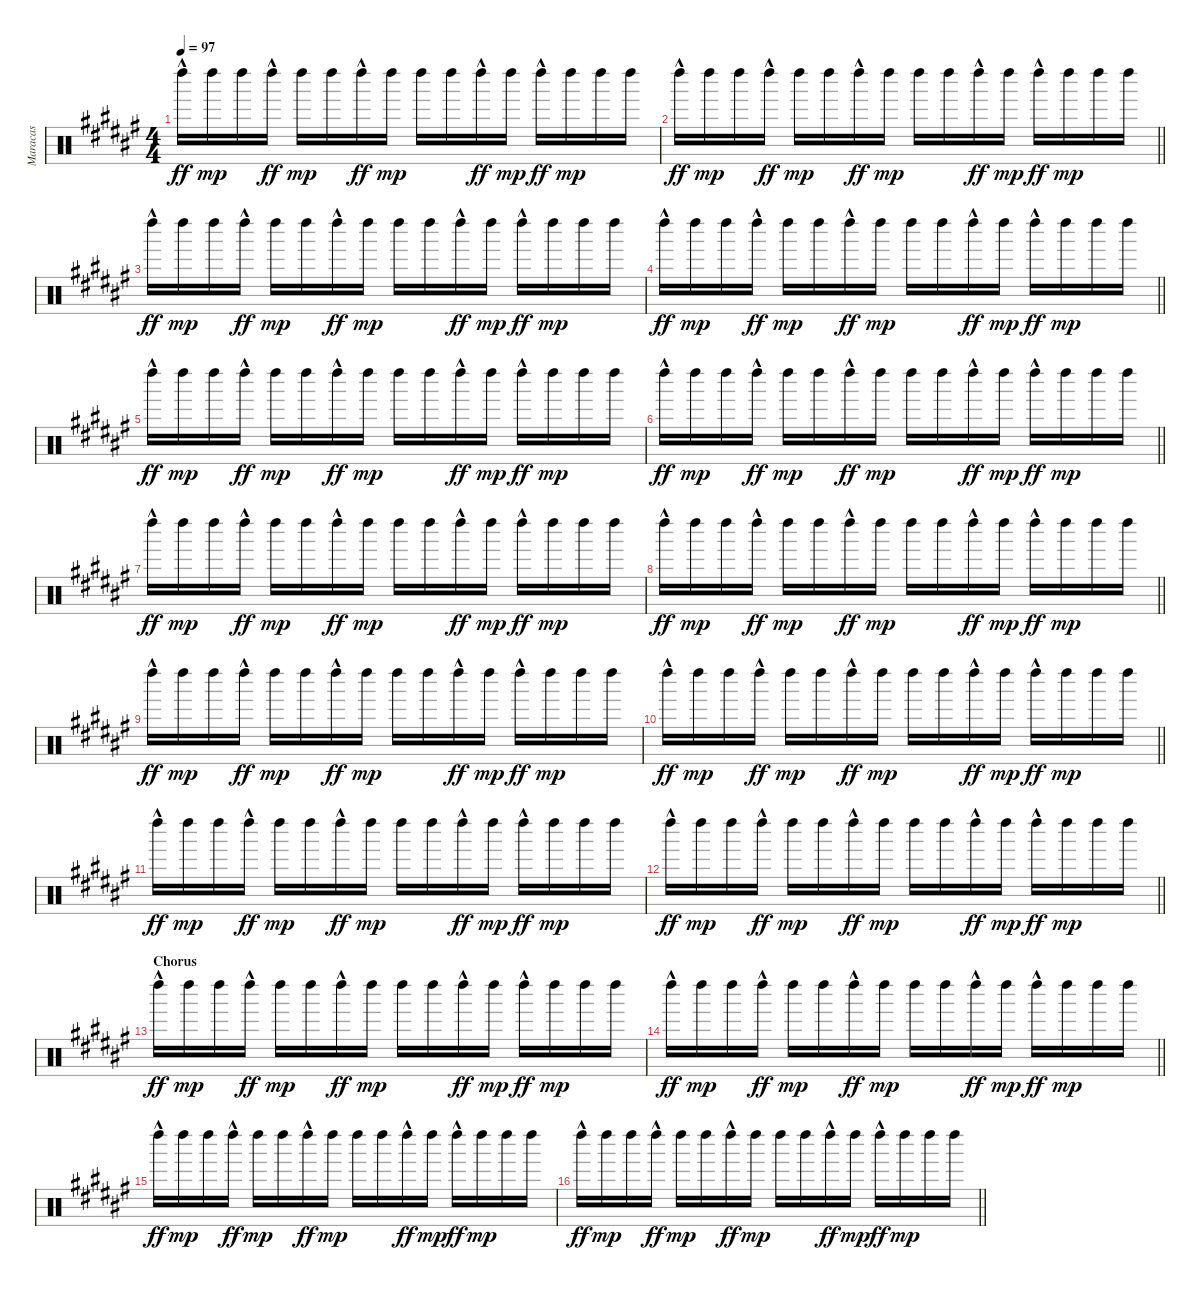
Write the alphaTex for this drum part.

\track ("Maracas" "Maracas") {instrument percussion}
\staff {score}
\articulation defaults
\ts (4 4)
\tempo 97
\clef neutral
\ks f# "Left Maraca (hit)"{hac}.16{dy ff} "Left Maraca (hit)".16{dy mp} "Left Maraca (hit)".16 "Left Maraca (hit)"{hac}.16{dy ff} "Left Maraca (hit)".16{dy mp} "Left Maraca (hit)".16 "Left Maraca (hit)"{hac}.16{dy ff} "Left Maraca (hit)".16{dy mp} "Left Maraca (hit)".16 "Left Maraca (hit)".16 "Left Maraca (hit)"{hac}.16{dy ff} "Left Maraca (hit)".16{dy mp} "Left Maraca (hit)"{hac}.16{dy ff} "Left Maraca (hit)".16{dy mp} "Left Maraca (hit)".16 "Left Maraca (hit)".16
|
\barLineRight lightlight "Left Maraca (hit)"{hac}.16{dy ff} "Left Maraca (hit)".16{dy mp} "Left Maraca (hit)".16 "Left Maraca (hit)"{hac}.16{dy ff} "Left Maraca (hit)".16{dy mp} "Left Maraca (hit)".16 "Left Maraca (hit)"{hac}.16{dy ff} "Left Maraca (hit)".16{dy mp} "Left Maraca (hit)".16 "Left Maraca (hit)".16 "Left Maraca (hit)"{hac}.16{dy ff} "Left Maraca (hit)".16{dy mp} "Left Maraca (hit)"{hac}.16{dy ff} "Left Maraca (hit)".16{dy mp} "Left Maraca (hit)".16 "Left Maraca (hit)".16
|
"Left Maraca (hit)"{hac}.16{dy ff} "Left Maraca (hit)".16{dy mp} "Left Maraca (hit)".16 "Left Maraca (hit)"{hac}.16{dy ff} "Left Maraca (hit)".16{dy mp} "Left Maraca (hit)".16 "Left Maraca (hit)"{hac}.16{dy ff} "Left Maraca (hit)".16{dy mp} "Left Maraca (hit)".16 "Left Maraca (hit)".16 "Left Maraca (hit)"{hac}.16{dy ff} "Left Maraca (hit)".16{dy mp} "Left Maraca (hit)"{hac}.16{dy ff} "Left Maraca (hit)".16{dy mp} "Left Maraca (hit)".16 "Left Maraca (hit)".16 |
\barLineRight lightlight "Left Maraca (hit)"{hac}.16{dy ff} "Left Maraca (hit)".16{dy mp} "Left Maraca (hit)".16 "Left Maraca (hit)"{hac}.16{dy ff} "Left Maraca (hit)".16{dy mp} "Left Maraca (hit)".16 "Left Maraca (hit)"{hac}.16{dy ff} "Left Maraca (hit)".16{dy mp} "Left Maraca (hit)".16 "Left Maraca (hit)".16 "Left Maraca (hit)"{hac}.16{dy ff} "Left Maraca (hit)".16{dy mp} "Left Maraca (hit)"{hac}.16{dy ff} "Left Maraca (hit)".16{dy mp} "Left Maraca (hit)".16 "Left Maraca (hit)".16
|
"Left Maraca (hit)"{hac}.16{dy ff} "Left Maraca (hit)".16{dy mp} "Left Maraca (hit)".16 "Left Maraca (hit)"{hac}.16{dy ff} "Left Maraca (hit)".16{dy mp} "Left Maraca (hit)".16 "Left Maraca (hit)"{hac}.16{dy ff} "Left Maraca (hit)".16{dy mp} "Left Maraca (hit)".16 "Left Maraca (hit)".16 "Left Maraca (hit)"{hac}.16{dy ff} "Left Maraca (hit)".16{dy mp} "Left Maraca (hit)"{hac}.16{dy ff} "Left Maraca (hit)".16{dy mp} "Left Maraca (hit)".16 "Left Maraca (hit)".16 |
\barLineRight lightlight "Left Maraca (hit)"{hac}.16{dy ff} "Left Maraca (hit)".16{dy mp} "Left Maraca (hit)".16 "Left Maraca (hit)"{hac}.16{dy ff} "Left Maraca (hit)".16{dy mp} "Left Maraca (hit)".16 "Left Maraca (hit)"{hac}.16{dy ff} "Left Maraca (hit)".16{dy mp} "Left Maraca (hit)".16 "Left Maraca (hit)".16 "Left Maraca (hit)"{hac}.16{dy ff} "Left Maraca (hit)".16{dy mp} "Left Maraca (hit)"{hac}.16{dy ff} "Left Maraca (hit)".16{dy mp} "Left Maraca (hit)".16 "Left Maraca (hit)".16
|
"Left Maraca (hit)"{hac}.16{dy ff} "Left Maraca (hit)".16{dy mp} "Left Maraca (hit)".16 "Left Maraca (hit)"{hac}.16{dy ff} "Left Maraca (hit)".16{dy mp} "Left Maraca (hit)".16 "Left Maraca (hit)"{hac}.16{dy ff} "Left Maraca (hit)".16{dy mp} "Left Maraca (hit)".16 "Left Maraca (hit)".16 "Left Maraca (hit)"{hac}.16{dy ff} "Left Maraca (hit)".16{dy mp} "Left Maraca (hit)"{hac}.16{dy ff} "Left Maraca (hit)".16{dy mp} "Left Maraca (hit)".16 "Left Maraca (hit)".16 |
\barLineRight lightlight "Left Maraca (hit)"{hac}.16{dy ff} "Left Maraca (hit)".16{dy mp} "Left Maraca (hit)".16 "Left Maraca (hit)"{hac}.16{dy ff} "Left Maraca (hit)".16{dy mp} "Left Maraca (hit)".16 "Left Maraca (hit)"{hac}.16{dy ff} "Left Maraca (hit)".16{dy mp} "Left Maraca (hit)".16 "Left Maraca (hit)".16 "Left Maraca (hit)"{hac}.16{dy ff} "Left Maraca (hit)".16{dy mp} "Left Maraca (hit)"{hac}.16{dy ff} "Left Maraca (hit)".16{dy mp} "Left Maraca (hit)".16 "Left Maraca (hit)".16
|
"Left Maraca (hit)"{hac}.16{dy ff} "Left Maraca (hit)".16{dy mp} "Left Maraca (hit)".16 "Left Maraca (hit)"{hac}.16{dy ff} "Left Maraca (hit)".16{dy mp} "Left Maraca (hit)".16 "Left Maraca (hit)"{hac}.16{dy ff} "Left Maraca (hit)".16{dy mp} "Left Maraca (hit)".16 "Left Maraca (hit)".16 "Left Maraca (hit)"{hac}.16{dy ff} "Left Maraca (hit)".16{dy mp} "Left Maraca (hit)"{hac}.16{dy ff} "Left Maraca (hit)".16{dy mp} "Left Maraca (hit)".16 "Left Maraca (hit)".16 |
\barLineRight lightlight "Left Maraca (hit)"{hac}.16{dy ff} "Left Maraca (hit)".16{dy mp} "Left Maraca (hit)".16 "Left Maraca (hit)"{hac}.16{dy ff} "Left Maraca (hit)".16{dy mp} "Left Maraca (hit)".16 "Left Maraca (hit)"{hac}.16{dy ff} "Left Maraca (hit)".16{dy mp} "Left Maraca (hit)".16 "Left Maraca (hit)".16 "Left Maraca (hit)"{hac}.16{dy ff} "Left Maraca (hit)".16{dy mp} "Left Maraca (hit)"{hac}.16{dy ff} "Left Maraca (hit)".16{dy mp} "Left Maraca (hit)".16 "Left Maraca (hit)".16
|
"Left Maraca (hit)"{hac}.16{dy ff} "Left Maraca (hit)".16{dy mp} "Left Maraca (hit)".16 "Left Maraca (hit)"{hac}.16{dy ff} "Left Maraca (hit)".16{dy mp} "Left Maraca (hit)".16 "Left Maraca (hit)"{hac}.16{dy ff} "Left Maraca (hit)".16{dy mp} "Left Maraca (hit)".16 "Left Maraca (hit)".16 "Left Maraca (hit)"{hac}.16{dy ff} "Left Maraca (hit)".16{dy mp} "Left Maraca (hit)"{hac}.16{dy ff} "Left Maraca (hit)".16{dy mp} "Left Maraca (hit)".16 "Left Maraca (hit)".16 |
\barLineRight lightlight "Left Maraca (hit)"{hac}.16{dy ff} "Left Maraca (hit)".16{dy mp} "Left Maraca (hit)".16 "Left Maraca (hit)"{hac}.16{dy ff} "Left Maraca (hit)".16{dy mp} "Left Maraca (hit)".16 "Left Maraca (hit)"{hac}.16{dy ff} "Left Maraca (hit)".16{dy mp} "Left Maraca (hit)".16 "Left Maraca (hit)".16 "Left Maraca (hit)"{hac}.16{dy ff} "Left Maraca (hit)".16{dy mp} "Left Maraca (hit)"{hac}.16{dy ff} "Left Maraca (hit)".16{dy mp} "Left Maraca (hit)".16 "Left Maraca (hit)".16
|
\section ("" "Chorus")
"Left Maraca (hit)"{hac}.16{dy ff} "Left Maraca (hit)".16{dy mp} "Left Maraca (hit)".16 "Left Maraca (hit)"{hac}.16{dy ff} "Left Maraca (hit)".16{dy mp} "Left Maraca (hit)".16 "Left Maraca (hit)"{hac}.16{dy ff} "Left Maraca (hit)".16{dy mp} "Left Maraca (hit)".16 "Left Maraca (hit)".16 "Left Maraca (hit)"{hac}.16{dy ff} "Left Maraca (hit)".16{dy mp} "Left Maraca (hit)"{hac}.16{dy ff} "Left Maraca (hit)".16{dy mp} "Left Maraca (hit)".16 "Left Maraca (hit)".16 |
\barLineRight lightlight "Left Maraca (hit)"{hac}.16{dy ff} "Left Maraca (hit)".16{dy mp} "Left Maraca (hit)".16 "Left Maraca (hit)"{hac}.16{dy ff} "Left Maraca (hit)".16{dy mp} "Left Maraca (hit)".16 "Left Maraca (hit)"{hac}.16{dy ff} "Left Maraca (hit)".16{dy mp} "Left Maraca (hit)".16 "Left Maraca (hit)".16 "Left Maraca (hit)"{hac}.16{dy ff} "Left Maraca (hit)".16{dy mp} "Left Maraca (hit)"{hac}.16{dy ff} "Left Maraca (hit)".16{dy mp} "Left Maraca (hit)".16 "Left Maraca (hit)".16
|
"Left Maraca (hit)"{hac}.16{dy ff} "Left Maraca (hit)".16{dy mp} "Left Maraca (hit)".16 "Left Maraca (hit)"{hac}.16{dy ff} "Left Maraca (hit)".16{dy mp} "Left Maraca (hit)".16 "Left Maraca (hit)"{hac}.16{dy ff} "Left Maraca (hit)".16{dy mp} "Left Maraca (hit)".16 "Left Maraca (hit)".16 "Left Maraca (hit)"{hac}.16{dy ff} "Left Maraca (hit)".16{dy mp} "Left Maraca (hit)"{hac}.16{dy ff} "Left Maraca (hit)".16{dy mp} "Left Maraca (hit)".16 "Left Maraca (hit)".16 |
\barLineRight lightlight "Left Maraca (hit)"{hac}.16{dy ff} "Left Maraca (hit)".16{dy mp} "Left Maraca (hit)".16 "Left Maraca (hit)"{hac}.16{dy ff} "Left Maraca (hit)".16{dy mp} "Left Maraca (hit)".16 "Left Maraca (hit)"{hac}.16{dy ff} "Left Maraca (hit)".16{dy mp} "Left Maraca (hit)".16 "Left Maraca (hit)".16 "Left Maraca (hit)"{hac}.16{dy ff} "Left Maraca (hit)".16{dy mp} "Left Maraca (hit)"{hac}.16{dy ff} "Left Maraca (hit)".16{dy mp} "Left Maraca (hit)".16 "Left Maraca (hit)".16
